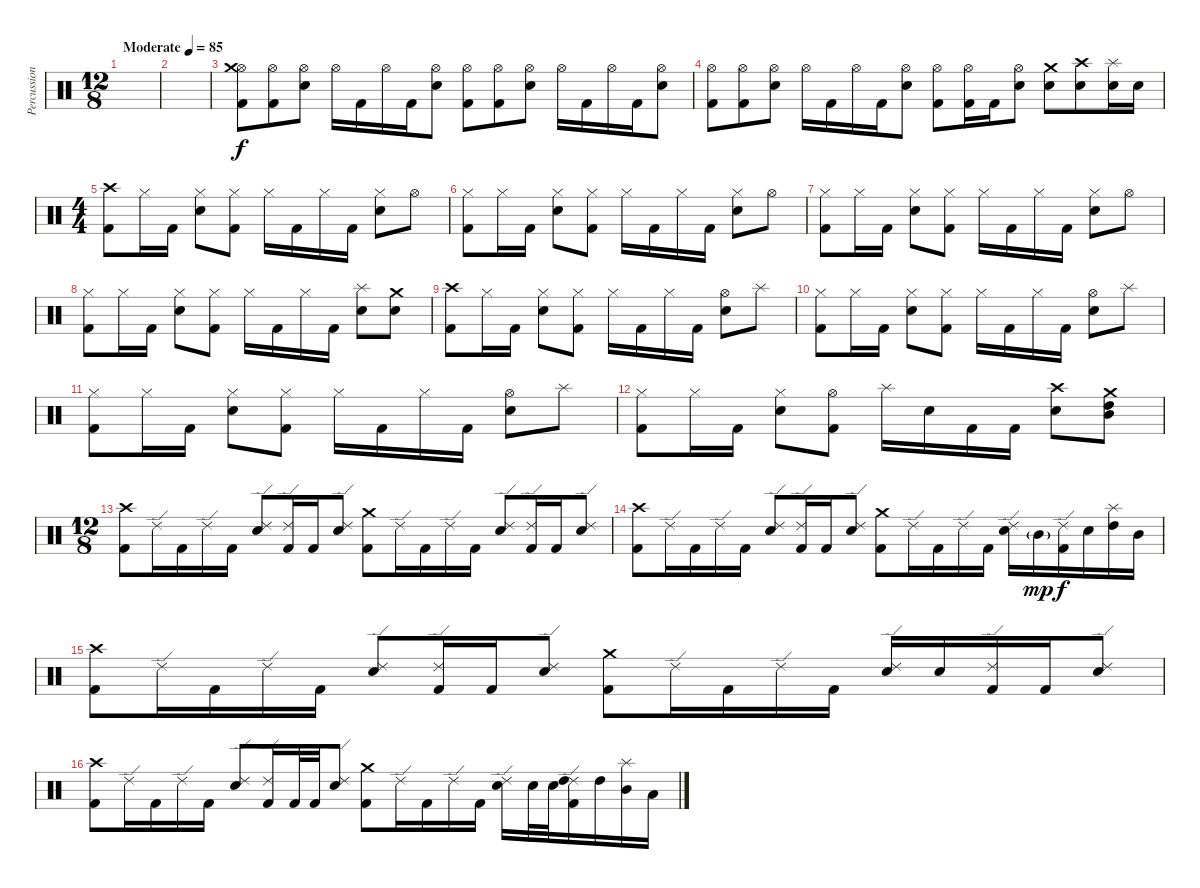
\track ("Percussion" "Percussion") {instrument percussion}
\staff {score}
\articulation defaults
\ts (12 8)
\tempo (85 "Moderate")
\clef neutral
\ks c
|
|
("Hi-Hat (open)" "Crash medium (hit)" "Kick (hit) 2").8 ("Hi-Hat (open)" "Kick (hit) 2").8 ("Hi-Hat (open)" "Snare (hit) 2").8 "Hi-Hat (open)".16 "Kick (hit) 2".16 "Hi-Hat (open)".16 "Kick (hit) 2".16 ("Hi-Hat (open)" "Snare (hit) 2").8 ("Hi-Hat (open)" "Kick (hit) 2").8 ("Hi-Hat (open)" "Kick (hit) 2").8 ("Hi-Hat (open)" "Snare (hit) 2").8 "Hi-Hat (open)".16 "Kick (hit) 2".16 "Hi-Hat (open)".16 "Kick (hit) 2".16 ("Hi-Hat (open)" "Snare (hit) 2").8 |
("Hi-Hat (open)" "Kick (hit) 2").8 ("Hi-Hat (open)" "Kick (hit) 2").8 ("Hi-Hat (open)" "Snare (hit) 2").8 "Hi-Hat (open)".16 "Kick (hit) 2".16 "Hi-Hat (open)".16 "Kick (hit) 2".16 ("Hi-Hat (open)" "Snare (hit) 2").8 ("Hi-Hat (open)" "Kick (hit) 2").8 ("Hi-Hat (open)" "Kick (hit) 2").16 "Kick (hit) 2".16 ("Hi-Hat (open)" "Snare (hit) 2").8 ("Crash medium (hit)" "Snare (hit) 2").8 ("Crash high (hit)" "Snare (hit) 2").8 ("Splash (hit)" "Electric Snare (hit)").16 "Electric Snare (hit)".16 |
\ts (4 4)
("Crash high (hit)" "Kick (hit) 2").8 "Hi-Hat (closed)".16 "Kick (hit) 2".16 ("Hi-Hat (closed)" "Snare (hit) 2").8 ("Hi-Hat (closed)" "Kick (hit) 2").8 "Hi-Hat (closed)".16 "Kick (hit) 2".16 "Hi-Hat (closed)".16 "Kick (hit) 2".16 ("Hi-Hat (closed)" "Snare (hit) 2").8 "Hi-Hat (open)".8 |
("Hi-Hat (closed)" "Kick (hit) 2").8 "Hi-Hat (closed)".16 "Kick (hit) 2".16 ("Hi-Hat (closed)" "Snare (hit) 2").8 ("Hi-Hat (closed)" "Kick (hit) 2").8 "Hi-Hat (closed)".16 "Kick (hit) 2".16 "Hi-Hat (closed)".16 "Kick (hit) 2".16 ("Hi-Hat (closed)" "Snare (hit) 2").8 "Hi-Hat (open)".8 |
("Hi-Hat (closed)" "Kick (hit) 2").8 "Hi-Hat (closed)".16 "Kick (hit) 2".16 ("Hi-Hat (closed)" "Snare (hit) 2").8 ("Hi-Hat (closed)" "Kick (hit) 2").8 "Hi-Hat (closed)".16 "Kick (hit) 2".16 "Hi-Hat (closed)".16 "Kick (hit) 2".16 ("Hi-Hat (closed)" "Snare (hit) 2").8 "Hi-Hat (open)".8 |
("Hi-Hat (closed)" "Kick (hit) 2").8 "Hi-Hat (closed)".16 "Kick (hit) 2".16 ("Hi-Hat (closed)" "Snare (hit) 2").8 ("Hi-Hat (closed)" "Kick (hit) 2").8 "Hi-Hat (closed)".16 "Kick (hit) 2".16 "Hi-Hat (closed)".16 "Kick (hit) 2".16 ("Splash (hit)" "Snare (hit) 2").8 ("Crash medium (hit)" "Snare (hit) 2").8 |
("Crash high (hit)" "Kick (hit) 2").8 "Hi-Hat (closed)".16 "Kick (hit) 2".16 ("Hi-Hat (closed)" "Snare (hit) 2").8 ("Hi-Hat (closed)" "Kick (hit) 2").8 "Hi-Hat (closed)".16 "Kick (hit) 2".16 "Hi-Hat (closed)".16 "Kick (hit) 2".16 ("Hi-Hat (open)" "Snare (hit) 2").8 "Splash (hit)".8 |
("Hi-Hat (closed)" "Kick (hit) 2").8 "Hi-Hat (closed)".16 "Kick (hit) 2".16 ("Hi-Hat (closed)" "Snare (hit) 2").8 ("Hi-Hat (closed)" "Kick (hit) 2").8 "Hi-Hat (closed)".16 "Kick (hit) 2".16 "Hi-Hat (closed)".16 "Kick (hit) 2".16 ("Hi-Hat (open)" "Snare (hit) 2").8 "Splash (hit)".8 |
("Hi-Hat (closed)" "Kick (hit) 2").8 "Hi-Hat (closed)".16 "Kick (hit) 2".16 ("Hi-Hat (closed)" "Snare (hit) 2").8 ("Hi-Hat (closed)" "Kick (hit) 2").8 "Hi-Hat (closed)".16 "Kick (hit) 2".16 "Hi-Hat (closed)".16 "Kick (hit) 2".16 ("Hi-Hat (open)" "Snare (hit) 2").8 "Splash (hit)".8 |
("Hi-Hat (closed)" "Kick (hit) 2").8 "Hi-Hat (closed)".16 "Kick (hit) 2".16 ("Hi-Hat (closed)" "Snare (hit) 2").8 ("Hi-Hat (open)" "Kick (hit) 2").8 "Splash (hit)".16 "Snare (hit) 2".16 "Kick (hit) 2".16 "Kick (hit) 2".16 ("Crash high (hit)" "Snare (hit) 2").8 ("Crash medium (hit)" "High Tom (hit)" "Mid Tom (hit)").8 |
\ts (12 8)
("Crash high (hit)" "Kick (hit) 2").8 "Ride (edge) 2".16 "Kick (hit) 2".16 "Ride (edge) 2".16 "Kick (hit) 2".16 ("Ride (edge) 2" "Snare (hit) 2").8 ("Ride (edge) 2" "Kick (hit) 2").16 "Kick (hit) 2".16 ("Ride (edge) 2" "Snare (hit) 2").8 ("Crash medium (hit)" "Kick (hit) 2").8 "Ride (edge) 2".16 "Kick (hit) 2".16 "Ride (edge) 2".16 "Kick (hit) 2".16 ("Ride (edge) 2" "Snare (hit) 2").8 ("Ride (edge) 2" "Kick (hit) 2").16 "Kick (hit) 2".16 ("Ride (edge) 2" "Snare (hit) 2").8 |
("Crash high (hit)" "Kick (hit) 2").8 "Ride (edge) 2".16 "Kick (hit) 2".16 "Ride (edge) 2".16 "Kick (hit) 2".16 ("Ride (edge) 2" "Snare (hit) 2").8 ("Ride (edge) 2" "Kick (hit) 2").16 "Kick (hit) 2".16 ("Ride (edge) 2" "Snare (hit) 2").8 ("Crash medium (hit)" "Kick (hit) 2").8 "Ride (edge) 2".16 "Kick (hit) 2".16 "Ride (edge) 2".16 "Kick (hit) 2".16 ("Ride (edge) 2" "Snare (hit) 2").16 "Mid Tom (hit)"{g}.16{dy mp} ("Ride (edge) 2" "Kick (hit) 2").16{dy f} "Snare (hit) 2".16 ("Splash (hit)" "High Tom (hit)").16 "Mid Tom (hit)".16 |
("Crash high (hit)" "Kick (hit) 2").8 "Ride (edge) 2".16 "Kick (hit) 2".16 "Ride (edge) 2".16 "Kick (hit) 2".16 ("Ride (edge) 2" "Snare (hit) 2").8 ("Ride (edge) 2" "Kick (hit) 2").16 "Kick (hit) 2".16 ("Ride (edge) 2" "Snare (hit) 2").8 ("Crash medium (hit)" "Kick (hit) 2").8 "Ride (edge) 2".16 "Kick (hit) 2".16 "Ride (edge) 2".16 "Kick (hit) 2".16 ("Ride (edge) 2" "Snare (hit) 2").16 "Snare (hit) 2".16 ("Ride (edge) 2" "Kick (hit) 2").16 "Kick (hit) 2".16 ("Ride (edge) 2" "Snare (hit) 2").8 |
("Crash high (hit)" "Kick (hit) 2").8 "Ride (edge) 2".16 "Kick (hit) 2".16 "Ride (edge) 2".16 "Kick (hit) 2".16 ("Ride (edge) 2" "Snare (hit) 2").8 ("Ride (edge) 2" "Kick (hit) 2").16 "Kick (hit) 2".32 "Kick (hit) 2".32 ("Ride (edge) 2" "Snare (hit) 2").8 ("Crash medium (hit)" "Kick (hit) 2").8 "Ride (edge) 2".16 "Kick (hit) 2".16 "Ride (edge) 2".16 "Kick (hit) 2".16 ("Ride (edge) 2" "Snare (hit) 2").16 "Snare (hit) 2".32 "Snare (hit) 2".32 ("Ride (edge) 2" "High Tom (hit)" "Kick (hit) 2").16 "High Tom (hit)".16 ("Splash (hit)" "Mid Tom (hit)").16 "Low Tom (hit)".16
